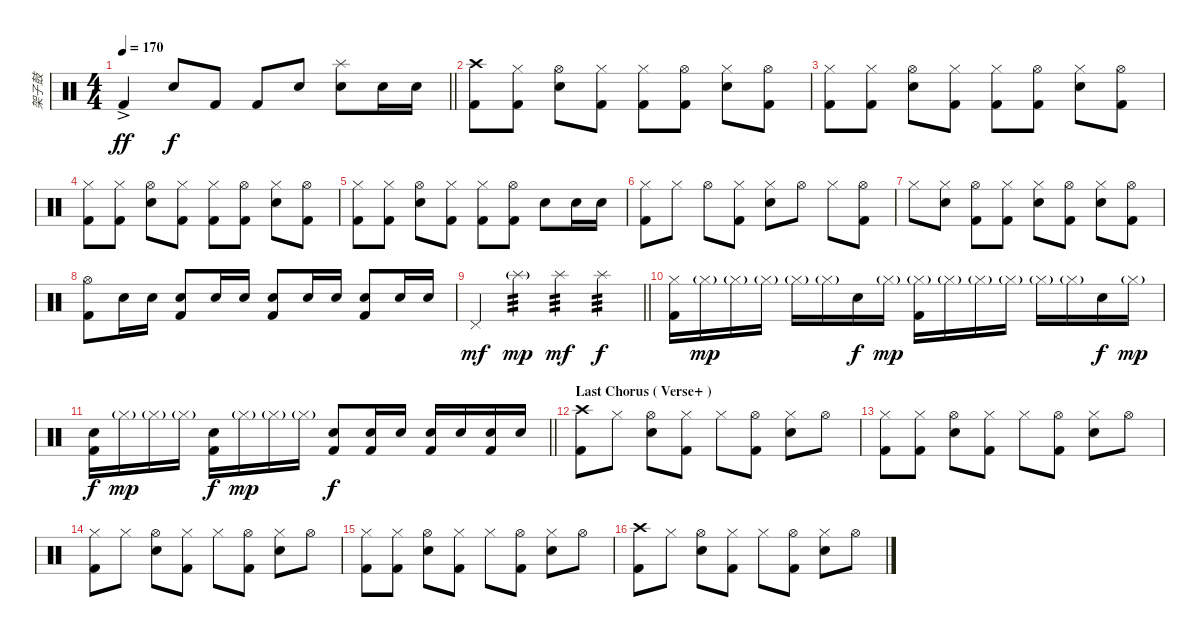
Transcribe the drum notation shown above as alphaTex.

\track ("架子鼓" "架子鼓") {instrument percussion}
\staff {score}
\articulation defaults
\ts (4 4)
\tempo 170
\clef neutral
\barLineRight lightlight
\ks c "Kick (hit) 2"{ac}.4{dy ff} "Snare (hit) 2".8{dy f} "Kick (hit) 2".8 "Kick (hit) 2".8 "Snare (hit) 2".8
("Splash (hit)" "Snare (hit) 2").8 "Snare (hit) 2".16 "Snare (hit) 2".16 |
("Crash high (hit)" "Kick (hit) 2").8 ("Hi-Hat (closed)" "Kick (hit) 2").8 ("Hi-Hat (open)" "Snare (hit) 2").8 ("Hi-Hat (closed)" "Kick (hit) 2").8 ("Hi-Hat (closed)" "Kick (hit) 2").8 ("Hi-Hat (open)" "Kick (hit) 2").8 ("Hi-Hat (closed)" "Snare (hit) 2").8 ("Hi-Hat (open)" "Kick (hit) 2").8 |
("Hi-Hat (closed)" "Kick (hit) 2").8 ("Hi-Hat (closed)" "Kick (hit) 2").8 ("Hi-Hat (open)" "Snare (hit) 2").8 ("Hi-Hat (closed)" "Kick (hit) 2").8 ("Hi-Hat (closed)" "Kick (hit) 2").8 ("Hi-Hat (open)" "Kick (hit) 2").8 ("Hi-Hat (closed)" "Snare (hit) 2").8 ("Hi-Hat (open)" "Kick (hit) 2").8 |
("Hi-Hat (closed)" "Kick (hit) 2").8 ("Hi-Hat (closed)" "Kick (hit) 2").8 ("Hi-Hat (open)" "Snare (hit) 2").8 ("Hi-Hat (closed)" "Kick (hit) 2").8 ("Hi-Hat (closed)" "Kick (hit) 2").8 ("Hi-Hat (open)" "Kick (hit) 2").8 ("Hi-Hat (closed)" "Snare (hit) 2").8 ("Hi-Hat (open)" "Kick (hit) 2").8 |
("Hi-Hat (closed)" "Kick (hit) 2").8 ("Hi-Hat (closed)" "Kick (hit) 2").8 ("Hi-Hat (open)" "Snare (hit) 2").8 ("Hi-Hat (closed)" "Kick (hit) 2").8 ("Hi-Hat (closed)" "Kick (hit) 2").8 ("Hi-Hat (open)" "Kick (hit) 2").8 "Snare (hit) 2".8 "Snare (hit) 2".16 "Snare (hit) 2".16 |
("Hi-Hat (closed)" "Kick (hit) 2").8 "Hi-Hat (closed)".8 "Hi-Hat (open)".8 ("Hi-Hat (closed)" "Kick (hit) 2").8 ("Hi-Hat (closed)" "Snare (hit) 2").8 "Hi-Hat (open)".8 "Hi-Hat (closed)".8 ("Hi-Hat (open)" "Kick (hit) 2").8 |
"Hi-Hat (closed)".8 ("Hi-Hat (closed)" "Snare (hit) 2").8 ("Hi-Hat (open)" "Kick (hit) 2").8 ("Hi-Hat (closed)" "Kick (hit) 2").8 ("Hi-Hat (closed)" "Snare (hit) 2").8 ("Hi-Hat (open)" "Kick (hit) 2").8 ("Hi-Hat (closed)" "Snare (hit) 2").8 ("Hi-Hat (open)" "Kick (hit) 2").8 |
("Hi-Hat (open)" "Kick (hit) 2").8 "Snare (hit) 2".16 "Snare (hit) 2".16 ("Snare (hit) 2" "Kick (hit) 2").8 "Snare (hit) 2".16 "Snare (hit) 2".16 ("Snare (hit) 2" "Kick (hit) 2").8 "Snare (hit) 2".16 "Snare (hit) 2".16 ("Snare (hit) 2" "Kick (hit) 2").8 "Snare (hit) 2".16 "Snare (hit) 2".16 |
\barLineRight lightlight "Pedal Hi-Hat (hit)".4{dy mf} "Splash (hit)"{g}.4{tp 3 dy mp} "Splash (hit)".4{tp 3 dy mf} "Splash (hit)".4{tp 3 dy f}
|
("Hi-Hat (closed)" "Kick (hit) 2").16 "Hi-Hat (closed)"{g}.16{dy mp} "Hi-Hat (closed)"{g}.16 "Hi-Hat (closed)"{g}.16 "Hi-Hat (closed)"{g}.16 "Hi-Hat (closed)"{g}.16 "Snare (hit) 2".16{dy f} "Hi-Hat (closed)"{g}.16{dy mp} ("Hi-Hat (closed)"{g} "Kick (hit) 2").16 "Hi-Hat (closed)"{g}.16 "Hi-Hat (closed)"{g}.16 "Hi-Hat (closed)"{g}.16 "Hi-Hat (closed)"{g}.16 "Hi-Hat (closed)"{g}.16 "Snare (hit) 2".16{dy f} "Hi-Hat (closed)"{g}.16{dy mp} |
\barLineRight lightlight
("Snare (hit) 2" "Kick (hit) 2").16{dy f} "Hi-Hat (closed)"{g}.16{dy mp} "Hi-Hat (closed)"{g}.16 "Hi-Hat (closed)"{g}.16 ("Snare (hit) 2" "Kick (hit) 2").16{dy f} "Hi-Hat (closed)"{g}.16{dy mp} "Hi-Hat (closed)"{g}.16 "Hi-Hat (closed)"{g}.16 ("Snare (hit) 2" "Kick (hit) 2").8{dy f} ("Snare (hit) 2" "Kick (hit) 2").16 "Snare (hit) 2".16 ("Snare (hit) 2" "Kick (hit) 2").16 "Snare (hit) 2".16 ("Snare (hit) 2" "Kick (hit) 2").16 "Snare (hit) 2".16 |
\section ("" "Last Chorus ( Verse+ )")
("Crash high (hit)" "Kick (hit) 2").8 "Hi-Hat (closed)".8 ("Hi-Hat (open)" "Snare (hit) 2").8 ("Hi-Hat (closed)" "Kick (hit) 2").8 "Hi-Hat (closed)".8 ("Hi-Hat (open)" "Kick (hit) 2").8 ("Hi-Hat (closed)" "Snare (hit) 2").8 "Hi-Hat (open)".8 |
("Hi-Hat (closed)" "Kick (hit) 2").8 ("Hi-Hat (closed)" "Kick (hit) 2").8 ("Hi-Hat (open)" "Snare (hit) 2").8 ("Hi-Hat (closed)" "Kick (hit) 2").8 "Hi-Hat (closed)".8 ("Hi-Hat (open)" "Kick (hit) 2").8 ("Hi-Hat (closed)" "Snare (hit) 2").8 "Hi-Hat (open)".8 |
("Hi-Hat (closed)" "Kick (hit) 2").8 "Hi-Hat (closed)".8 ("Hi-Hat (open)" "Snare (hit) 2").8 ("Hi-Hat (closed)" "Kick (hit) 2").8 "Hi-Hat (closed)".8 ("Hi-Hat (open)" "Kick (hit) 2").8 ("Hi-Hat (closed)" "Snare (hit) 2").8 "Hi-Hat (open)".8 |
("Hi-Hat (closed)" "Kick (hit) 2").8 ("Hi-Hat (closed)" "Kick (hit) 2").8 ("Hi-Hat (open)" "Snare (hit) 2").8 ("Hi-Hat (closed)" "Kick (hit) 2").8 "Hi-Hat (closed)".8 ("Hi-Hat (open)" "Kick (hit) 2").8 ("Hi-Hat (closed)" "Snare (hit) 2").8 "Hi-Hat (open)".8 |
("Crash high (hit)" "Kick (hit) 2").8 "Hi-Hat (closed)".8 ("Hi-Hat (open)" "Snare (hit) 2").8 ("Hi-Hat (closed)" "Kick (hit) 2").8 "Hi-Hat (closed)".8 ("Hi-Hat (open)" "Kick (hit) 2").8 ("Hi-Hat (closed)" "Snare (hit) 2").8 "Hi-Hat (open)".8
